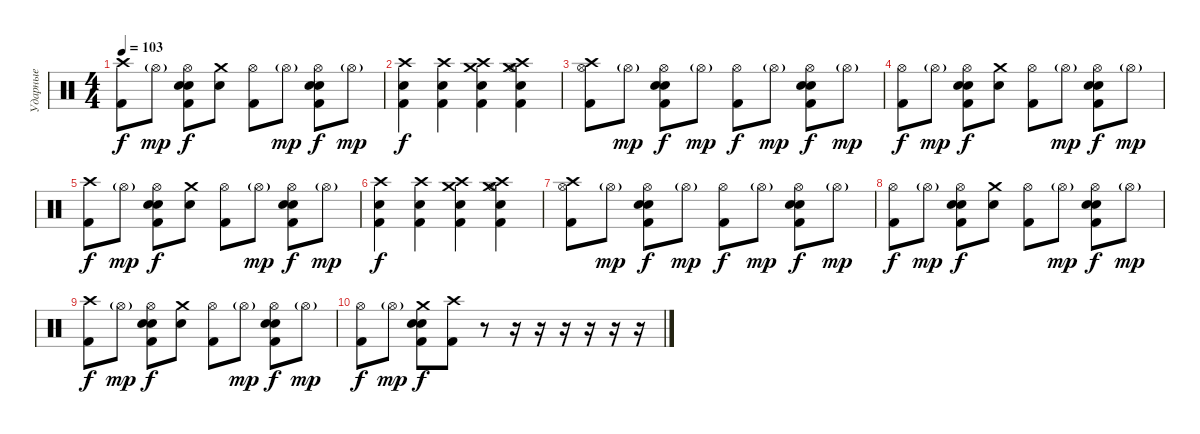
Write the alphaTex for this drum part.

\track ("Ударные" "Ударные") {instrument percussion}
\staff {score}
\articulation defaults
\ts (4 4)
\tempo 103
\clef neutral
\ks c
("Crash high (hit)" "Kick (hit) 2").8{dy f} "Hi-Hat (open)"{g}.8{dy mp} ("Hi-Hat (open)" "Snare (hit) 2" "Hand Clap (hit)" "Kick (hit) 2").8{dy f} ("Crash medium (hit)" "Snare (hit) 2").8 ("Hi-Hat (open)" "Kick (hit) 2").8 "Hi-Hat (open)"{g}.8{dy mp} ("Hi-Hat (open)" "Snare (hit) 2" "Hand Clap (hit)" "Kick (hit) 2").8{dy f} "Hi-Hat (open)"{g}.8{dy mp} |
("Crash high (hit)" "Snare (hit) 2" "Kick (hit) 2").4{dy f} ("Crash high (hit)" "Snare (hit) 2" "Kick (hit) 2").4 ("Crash medium (hit)" "Crash high (hit)" "Snare (hit) 2" "Kick (hit) 2").4 ("Crash medium (hit)" "Crash high (hit)" "Snare (hit) 2" "Hi-Hat (open)" "Kick (hit) 2").4 |
("Crash high (hit)" "Hi-Hat (open)" "Kick (hit) 2").8 "Hi-Hat (open)"{g}.8{dy mp} ("Hi-Hat (open)" "Snare (hit) 2" "Hand Clap (hit)" "Kick (hit) 2").8{dy f} "Hi-Hat (open)"{g}.8{dy mp} ("Hi-Hat (open)" "Kick (hit) 2").8{dy f} "Hi-Hat (open)"{g}.8{dy mp} ("Hi-Hat (open)" "Snare (hit) 2" "Hand Clap (hit)" "Kick (hit) 2").8{dy f} "Hi-Hat (open)"{g}.8{dy mp} |
("Hi-Hat (open)" "Kick (hit) 2").8{dy f} "Hi-Hat (open)"{g}.8{dy mp} ("Hi-Hat (open)" "Snare (hit) 2" "Hand Clap (hit)" "Kick (hit) 2").8{dy f} ("Crash medium (hit)" "Snare (hit) 2").8 ("Hi-Hat (open)" "Kick (hit) 2").8 "Hi-Hat (open)"{g}.8{dy mp} ("Hi-Hat (open)" "Snare (hit) 2" "Hand Clap (hit)" "Kick (hit) 2").8{dy f} "Hi-Hat (open)"{g}.8{dy mp} |
("Crash high (hit)" "Kick (hit) 2").8{dy f} "Hi-Hat (open)"{g}.8{dy mp} ("Hi-Hat (open)" "Snare (hit) 2" "Hand Clap (hit)" "Kick (hit) 2").8{dy f} ("Crash medium (hit)" "Snare (hit) 2").8 ("Hi-Hat (open)" "Kick (hit) 2").8 "Hi-Hat (open)"{g}.8{dy mp} ("Hi-Hat (open)" "Snare (hit) 2" "Hand Clap (hit)" "Kick (hit) 2").8{dy f} "Hi-Hat (open)"{g}.8{dy mp} |
("Crash high (hit)" "Snare (hit) 2" "Kick (hit) 2").4{dy f} ("Crash high (hit)" "Snare (hit) 2" "Kick (hit) 2").4 ("Crash medium (hit)" "Crash high (hit)" "Snare (hit) 2" "Kick (hit) 2").4 ("Crash medium (hit)" "Crash high (hit)" "Snare (hit) 2" "Hi-Hat (open)" "Kick (hit) 2").4 |
("Crash high (hit)" "Hi-Hat (open)" "Kick (hit) 2").8 "Hi-Hat (open)"{g}.8{dy mp} ("Hi-Hat (open)" "Snare (hit) 2" "Hand Clap (hit)" "Kick (hit) 2").8{dy f} "Hi-Hat (open)"{g}.8{dy mp} ("Hi-Hat (open)" "Kick (hit) 2").8{dy f} "Hi-Hat (open)"{g}.8{dy mp} ("Hi-Hat (open)" "Snare (hit) 2" "Hand Clap (hit)" "Kick (hit) 2").8{dy f} "Hi-Hat (open)"{g}.8{dy mp} |
("Hi-Hat (open)" "Kick (hit) 2").8{dy f} "Hi-Hat (open)"{g}.8{dy mp} ("Hi-Hat (open)" "Snare (hit) 2" "Hand Clap (hit)" "Kick (hit) 2").8{dy f} ("Crash medium (hit)" "Snare (hit) 2").8 ("Hi-Hat (open)" "Kick (hit) 2").8 "Hi-Hat (open)"{g}.8{dy mp} ("Hi-Hat (open)" "Snare (hit) 2" "Hand Clap (hit)" "Kick (hit) 2").8{dy f} "Hi-Hat (open)"{g}.8{dy mp} |
("Crash high (hit)" "Kick (hit) 2").8{dy f} "Hi-Hat (open)"{g}.8{dy mp} ("Hi-Hat (open)" "Snare (hit) 2" "Hand Clap (hit)" "Kick (hit) 2").8{dy f} ("Crash medium (hit)" "Snare (hit) 2").8 ("Hi-Hat (open)" "Kick (hit) 2").8 "Hi-Hat (open)"{g}.8{dy mp} ("Hi-Hat (open)" "Snare (hit) 2" "Hand Clap (hit)" "Kick (hit) 2").8{dy f} "Hi-Hat (open)"{g}.8{dy mp} |
("Hi-Hat (open)" "Kick (hit) 2").8{dy f} "Hi-Hat (open)"{g}.8{dy mp} ("Crash medium (hit)" "Snare (hit) 2" "Hand Clap (hit)" "Kick (hit) 2").8{dy f} ("Crash high (hit)" "Kick (hit) 2").8 r.8 r.16 r.16 r.16 r.16 r.16 r.16
